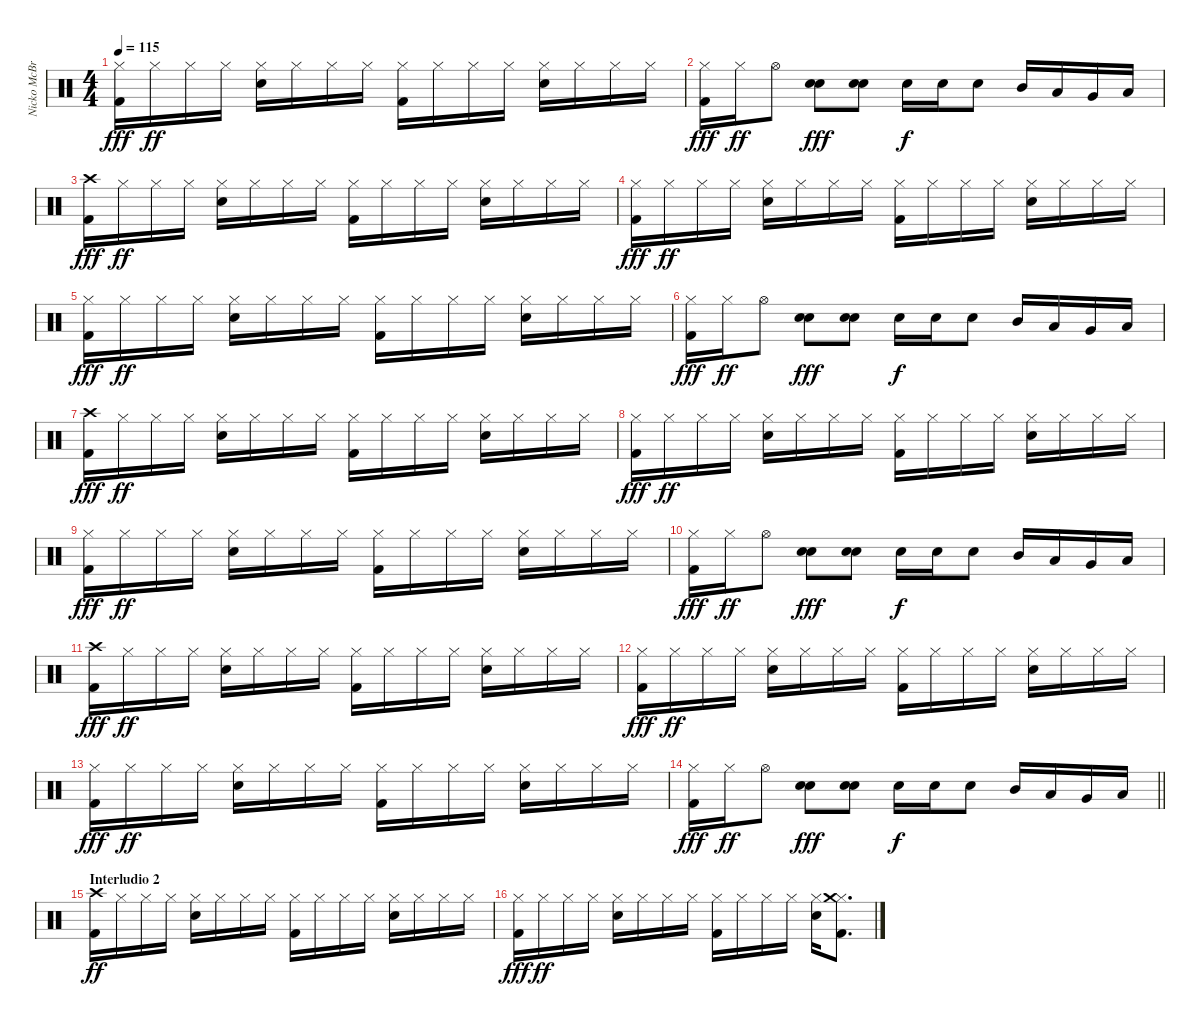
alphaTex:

\track ("Nicko McBrain" "Nicko McBr") {instrument percussion}
\staff {score}
\articulation defaults
\ts (4 4)
\tempo 115
\clef neutral
\ks c
("Kick (hit) 2" "Hi-Hat (closed)").16{dy fff} "Hi-Hat (closed)".16{dy ff} "Hi-Hat (closed)".16 "Hi-Hat (closed)".16 ("Snare (hit) 2" "Hi-Hat (closed)").16 "Hi-Hat (closed)".16 "Hi-Hat (closed)".16 "Hi-Hat (closed)".16 ("Kick (hit) 2" "Hi-Hat (closed)").16 "Hi-Hat (closed)".16 "Hi-Hat (closed)".16 "Hi-Hat (closed)".16 ("Snare (hit) 2" "Hi-Hat (closed)").16 "Hi-Hat (closed)".16 "Hi-Hat (closed)".16 "Hi-Hat (closed)".16 |
("Kick (hit) 2" "Hi-Hat (closed)").16{dy fff} "Hi-Hat (closed)".16{dy ff} "Hi-Hat (open)".8 ("Snare (hit) 2" "Electric Snare (hit)").8{dy fff} ("Snare (hit) 2" "Electric Snare (hit)").8 "Snare (hit) 2".16{dy f} "Snare (hit) 2".16 "Snare (hit) 2".8 "Mid Tom (hit)".16 "Low Tom (hit)".16 "Very Low Tom (hit)".16 "Low Floor Tom (hit)".16 |
("Kick (hit) 2" "Crash high (hit)").16{dy fff} "Hi-Hat (closed)".16{dy ff} "Hi-Hat (closed)".16 "Hi-Hat (closed)".16 ("Snare (hit) 2" "Hi-Hat (closed)").16 "Hi-Hat (closed)".16 "Hi-Hat (closed)".16 "Hi-Hat (closed)".16 ("Kick (hit) 2" "Hi-Hat (closed)").16 "Hi-Hat (closed)".16 "Hi-Hat (closed)".16 "Hi-Hat (closed)".16 ("Snare (hit) 2" "Hi-Hat (closed)").16 "Hi-Hat (closed)".16 "Hi-Hat (closed)".16 "Hi-Hat (closed)".16 |
("Kick (hit) 2" "Hi-Hat (closed)").16{dy fff} "Hi-Hat (closed)".16{dy ff} "Hi-Hat (closed)".16 "Hi-Hat (closed)".16 ("Snare (hit) 2" "Hi-Hat (closed)").16 "Hi-Hat (closed)".16 "Hi-Hat (closed)".16 "Hi-Hat (closed)".16 ("Kick (hit) 2" "Hi-Hat (closed)").16 "Hi-Hat (closed)".16 "Hi-Hat (closed)".16 "Hi-Hat (closed)".16 ("Snare (hit) 2" "Hi-Hat (closed)").16 "Hi-Hat (closed)".16 "Hi-Hat (closed)".16 "Hi-Hat (closed)".16 |
("Kick (hit) 2" "Hi-Hat (closed)").16{dy fff} "Hi-Hat (closed)".16{dy ff} "Hi-Hat (closed)".16 "Hi-Hat (closed)".16 ("Snare (hit) 2" "Hi-Hat (closed)").16 "Hi-Hat (closed)".16 "Hi-Hat (closed)".16 "Hi-Hat (closed)".16 ("Kick (hit) 2" "Hi-Hat (closed)").16 "Hi-Hat (closed)".16 "Hi-Hat (closed)".16 "Hi-Hat (closed)".16 ("Snare (hit) 2" "Hi-Hat (closed)").16 "Hi-Hat (closed)".16 "Hi-Hat (closed)".16 "Hi-Hat (closed)".16 |
("Kick (hit) 2" "Hi-Hat (closed)").16{dy fff} "Hi-Hat (closed)".16{dy ff} "Hi-Hat (open)".8 ("Snare (hit) 2" "Electric Snare (hit)").8{dy fff} ("Snare (hit) 2" "Electric Snare (hit)").8 "Snare (hit) 2".16{dy f} "Snare (hit) 2".16 "Snare (hit) 2".8 "Mid Tom (hit)".16 "Low Tom (hit)".16 "Very Low Tom (hit)".16 "Low Floor Tom (hit)".16 |
("Kick (hit) 2" "Crash high (hit)").16{dy fff} "Hi-Hat (closed)".16{dy ff} "Hi-Hat (closed)".16 "Hi-Hat (closed)".16 ("Snare (hit) 2" "Hi-Hat (closed)").16 "Hi-Hat (closed)".16 "Hi-Hat (closed)".16 "Hi-Hat (closed)".16 ("Kick (hit) 2" "Hi-Hat (closed)").16 "Hi-Hat (closed)".16 "Hi-Hat (closed)".16 "Hi-Hat (closed)".16 ("Snare (hit) 2" "Hi-Hat (closed)").16 "Hi-Hat (closed)".16 "Hi-Hat (closed)".16 "Hi-Hat (closed)".16 |
("Kick (hit) 2" "Hi-Hat (closed)").16{dy fff} "Hi-Hat (closed)".16{dy ff} "Hi-Hat (closed)".16 "Hi-Hat (closed)".16 ("Snare (hit) 2" "Hi-Hat (closed)").16 "Hi-Hat (closed)".16 "Hi-Hat (closed)".16 "Hi-Hat (closed)".16 ("Kick (hit) 2" "Hi-Hat (closed)").16 "Hi-Hat (closed)".16 "Hi-Hat (closed)".16 "Hi-Hat (closed)".16 ("Snare (hit) 2" "Hi-Hat (closed)").16 "Hi-Hat (closed)".16 "Hi-Hat (closed)".16 "Hi-Hat (closed)".16 |
("Kick (hit) 2" "Hi-Hat (closed)").16{dy fff} "Hi-Hat (closed)".16{dy ff} "Hi-Hat (closed)".16 "Hi-Hat (closed)".16 ("Snare (hit) 2" "Hi-Hat (closed)").16 "Hi-Hat (closed)".16 "Hi-Hat (closed)".16 "Hi-Hat (closed)".16 ("Kick (hit) 2" "Hi-Hat (closed)").16 "Hi-Hat (closed)".16 "Hi-Hat (closed)".16 "Hi-Hat (closed)".16 ("Snare (hit) 2" "Hi-Hat (closed)").16 "Hi-Hat (closed)".16 "Hi-Hat (closed)".16 "Hi-Hat (closed)".16 |
("Kick (hit) 2" "Hi-Hat (closed)").16{dy fff} "Hi-Hat (closed)".16{dy ff} "Hi-Hat (open)".8 ("Snare (hit) 2" "Electric Snare (hit)").8{dy fff} ("Snare (hit) 2" "Electric Snare (hit)").8 "Snare (hit) 2".16{dy f} "Snare (hit) 2".16 "Snare (hit) 2".8 "Mid Tom (hit)".16 "Low Tom (hit)".16 "Very Low Tom (hit)".16 "Low Floor Tom (hit)".16 |
("Kick (hit) 2" "Crash high (hit)").16{dy fff} "Hi-Hat (closed)".16{dy ff} "Hi-Hat (closed)".16 "Hi-Hat (closed)".16 ("Snare (hit) 2" "Hi-Hat (closed)").16 "Hi-Hat (closed)".16 "Hi-Hat (closed)".16 "Hi-Hat (closed)".16 ("Kick (hit) 2" "Hi-Hat (closed)").16 "Hi-Hat (closed)".16 "Hi-Hat (closed)".16 "Hi-Hat (closed)".16 ("Snare (hit) 2" "Hi-Hat (closed)").16 "Hi-Hat (closed)".16 "Hi-Hat (closed)".16 "Hi-Hat (closed)".16 |
("Kick (hit) 2" "Hi-Hat (closed)").16{dy fff} "Hi-Hat (closed)".16{dy ff} "Hi-Hat (closed)".16 "Hi-Hat (closed)".16 ("Snare (hit) 2" "Hi-Hat (closed)").16 "Hi-Hat (closed)".16 "Hi-Hat (closed)".16 "Hi-Hat (closed)".16 ("Kick (hit) 2" "Hi-Hat (closed)").16 "Hi-Hat (closed)".16 "Hi-Hat (closed)".16 "Hi-Hat (closed)".16 ("Snare (hit) 2" "Hi-Hat (closed)").16 "Hi-Hat (closed)".16 "Hi-Hat (closed)".16 "Hi-Hat (closed)".16 |
("Kick (hit) 2" "Hi-Hat (closed)").16{dy fff} "Hi-Hat (closed)".16{dy ff} "Hi-Hat (closed)".16 "Hi-Hat (closed)".16 ("Snare (hit) 2" "Hi-Hat (closed)").16 "Hi-Hat (closed)".16 "Hi-Hat (closed)".16 "Hi-Hat (closed)".16 ("Kick (hit) 2" "Hi-Hat (closed)").16 "Hi-Hat (closed)".16 "Hi-Hat (closed)".16 "Hi-Hat (closed)".16 ("Snare (hit) 2" "Hi-Hat (closed)").16 "Hi-Hat (closed)".16 "Hi-Hat (closed)".16 "Hi-Hat (closed)".16 |
\barLineRight lightlight
("Kick (hit) 2" "Hi-Hat (closed)").16{dy fff} "Hi-Hat (closed)".16{dy ff} "Hi-Hat (open)".8 ("Snare (hit) 2" "Electric Snare (hit)").8{dy fff} ("Snare (hit) 2" "Electric Snare (hit)").8 "Snare (hit) 2".16{dy f} "Snare (hit) 2".16 "Snare (hit) 2".8 "Mid Tom (hit)".16 "Low Tom (hit)".16 "Very Low Tom (hit)".16 "Low Floor Tom (hit)".16 |
\section ("" "Interludio 2")
("Kick (hit) 2" "Crash high (hit)").16{dy ff} "Hi-Hat (closed)".16 "Hi-Hat (closed)".16 "Hi-Hat (closed)".16 ("Snare (hit) 2" "Hi-Hat (closed)").16 "Hi-Hat (closed)".16 "Hi-Hat (closed)".16 "Hi-Hat (closed)".16 ("Kick (hit) 2" "Hi-Hat (closed)").16 "Hi-Hat (closed)".16 "Hi-Hat (closed)".16 "Hi-Hat (closed)".16 ("Snare (hit) 2" "Hi-Hat (closed)").16 "Hi-Hat (closed)".16 "Hi-Hat (closed)".16 "Hi-Hat (closed)".16 |
("Kick (hit) 2" "Hi-Hat (closed)").16{dy fff} "Hi-Hat (closed)".16{dy ff} "Hi-Hat (closed)".16 "Hi-Hat (closed)".16 ("Snare (hit) 2" "Hi-Hat (closed)").16 "Hi-Hat (closed)".16 "Hi-Hat (closed)".16 "Hi-Hat (closed)".16 ("Kick (hit) 2" "Hi-Hat (closed)").16 "Hi-Hat (closed)".16 "Hi-Hat (closed)".16 "Hi-Hat (closed)".16 ("Snare (hit) 2" "Hi-Hat (closed)").16 ("Hi-Hat (closed)" "Kick (hit) 2" "Crash medium (hit)").8{d}
